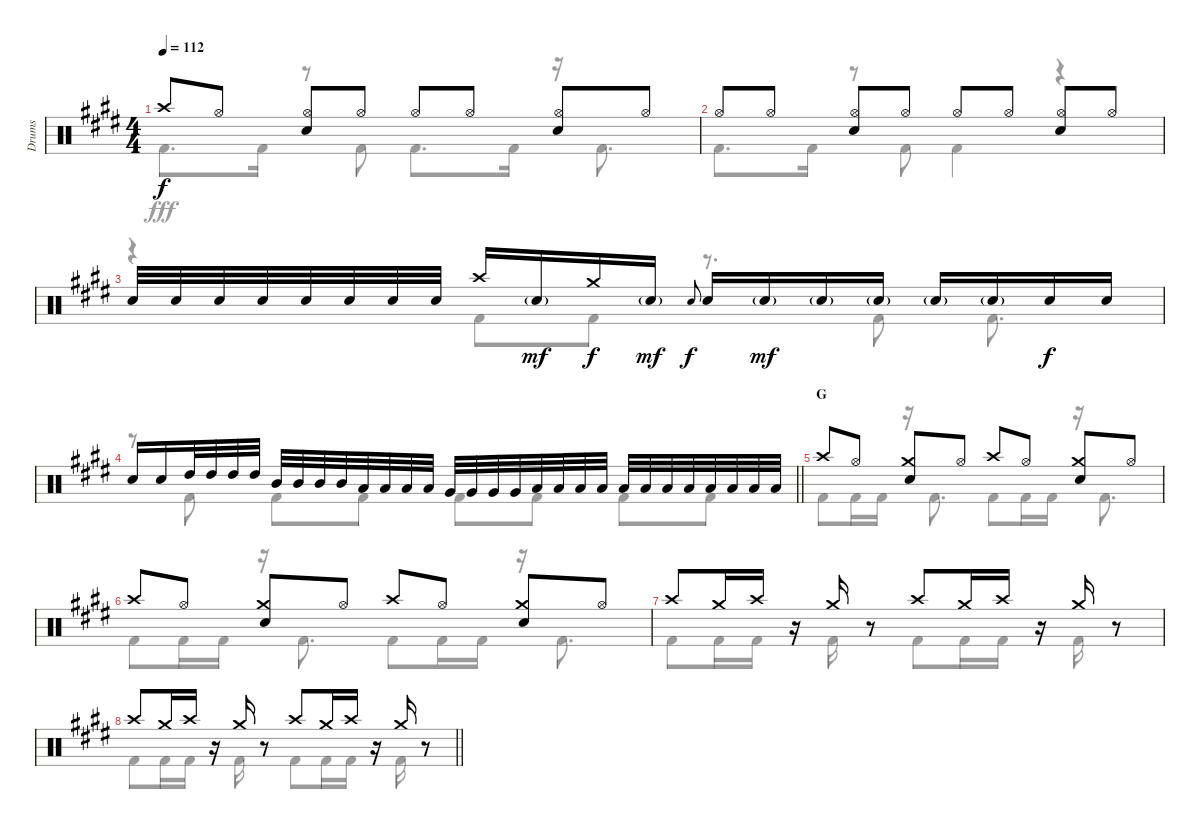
\track ("Drums" "Drums") {instrument percussion}
\staff {score}
\articulation defaults
\voice
\ts (4 4)
\tempo 112
\clef neutral
\ks e "Crash high (hit)".8{dy f} "Hi-Hat (open)".8
("Hi-Hat (open)" "Snare (hit) 2").8 "Hi-Hat (open)".8 "Hi-Hat (open)".8 "Hi-Hat (open)".8 ("Hi-Hat (open)" "Snare (hit) 2").8 "Hi-Hat (open)".8 |
"Hi-Hat (open)".8 "Hi-Hat (open)".8 ("Hi-Hat (open)" "Snare (hit) 2").8 "Hi-Hat (open)".8 "Hi-Hat (open)".8 "Hi-Hat (open)".8 ("Hi-Hat (open)" "Snare (hit) 2").8 "Hi-Hat (open)".8 |
"Snare (hit) 2".32 "Snare (hit) 2".32 "Snare (hit) 2".32 "Snare (hit) 2".32 "Snare (hit) 2".32 "Snare (hit) 2".32 "Snare (hit) 2".32 "Snare (hit) 2".32 "Crash high (hit)".16 "Snare (hit) 2"{g}.16{dy mf} "Crash medium (hit)".16{dy f} "Snare (hit) 2"{g}.16{dy mf} "Snare (hit) 2".8{gr onbeat dy f} "Snare (hit) 2".16 "Snare (hit) 2"{g}.16{dy mf} "Snare (hit) 2"{g}.16 "Snare (hit) 2"{g}.16 "Snare (hit) 2"{g}.16 "Snare (hit) 2"{g}.16 "Snare (hit) 2".16{dy f} "Snare (hit) 2".16 |
\barLineRight lightlight "Snare (hit) 2".16 "Snare (hit) 2".16 "High Tom (hit)".32 "High Tom (hit)".32 "High Tom (hit)".32 "High Tom (hit)".32 "Mid Tom (hit)".32 "Mid Tom (hit)".32 "Mid Tom (hit)".32 "Mid Tom (hit)".32 "Low Tom (hit)".32 "Low Tom (hit)".32 "Low Tom (hit)".32 "Low Tom (hit)".32 "Very Low Tom (hit)".32 "Very Low Tom (hit)".32 "Very Low Tom (hit)".32 "Very Low Tom (hit)".32 "Low Floor Tom (hit)".32 "Low Floor Tom (hit)".32 "Low Floor Tom (hit)".32 "Low Floor Tom (hit)".32 "Low Floor Tom (hit)".32 "Low Floor Tom (hit)".32 "Low Floor Tom (hit)".32 "Low Floor Tom (hit)".32 "Low Floor Tom (hit)".32 "Low Floor Tom (hit)".32 "Low Floor Tom (hit)".32 "Low Floor Tom (hit)".32
|
\section ("" "G")
"Crash high (hit)".8 "Hi-Hat (open)".8 ("Crash medium (hit)" "Snare (hit) 2").8 "Hi-Hat (open)".8 "Crash high (hit)".8 "Hi-Hat (open)".8 ("Crash medium (hit)" "Snare (hit) 2").8 "Hi-Hat (open)".8 |
"Crash high (hit)".8 "Hi-Hat (open)".8 ("Crash medium (hit)" "Snare (hit) 2").8 "Hi-Hat (open)".8 "Crash high (hit)".8 "Hi-Hat (open)".8 ("Crash medium (hit)" "Snare (hit) 2").8 "Hi-Hat (open)".8 |
"Crash high (hit)".8 "Crash medium (hit)".16 "Crash high (hit)".16 r.16 "Crash medium (hit)".16 r.8 "Crash high (hit)".8 "Crash medium (hit)".16 "Crash high (hit)".16 r.16 "Crash medium (hit)".16 r.8 |
\barLineRight lightlight "Crash high (hit)".8 "Crash medium (hit)".16 "Crash high (hit)".16
r.16 "Crash medium (hit)".16 r.8 "Crash high (hit)".8 "Crash medium (hit)".16 "Crash high (hit)".16 r.16 "Crash medium (hit)".16 r.8
\voice
\clef neutral
\ottava regular
\simile none
\ks e "Kick (hit) 2".8{d dy fff} "Kick (hit) 2".16
r.8 "Kick (hit) 2".8 "Kick (hit) 2".8{d} "Kick (hit) 2".16 r.16 "Kick (hit) 2".8{d} |
"Kick (hit) 2".8{d} "Kick (hit) 2".16 r.8 "Kick (hit) 2".8 "Kick (hit) 2".4 r.4 |
r.4 "Kick (hit) 2".8 "Kick (hit) 2".8 r.8{d} "Kick (hit) 2".8 "Kick (hit) 2".8{d} |
\barLineRight lightlight
r.8 "Kick (hit) 2".8 "Kick (hit) 2".8 "Kick (hit) 2".8 "Kick (hit) 2".8 "Kick (hit) 2".8 "Kick (hit) 2".8 "Kick (hit) 2".8 |
"Kick (hit) 2".8 "Kick (hit) 2".16 "Kick (hit) 2".16 r.16 "Kick (hit) 2".8{d} "Kick (hit) 2".8 "Kick (hit) 2".16 "Kick (hit) 2".16 r.16 "Kick (hit) 2".8{d} |
"Kick (hit) 2".8 "Kick (hit) 2".16 "Kick (hit) 2".16 r.16 "Kick (hit) 2".8{d} "Kick (hit) 2".8 "Kick (hit) 2".16 "Kick (hit) 2".16 r.16 "Kick (hit) 2".8{d} |
"Kick (hit) 2".8 "Kick (hit) 2".16 "Kick (hit) 2".16 r.16 "Kick (hit) 2".16 r.8 "Kick (hit) 2".8 "Kick (hit) 2".16 "Kick (hit) 2".16 r.16 "Kick (hit) 2".16 r.8 |
\barLineRight lightlight "Kick (hit) 2".8 "Kick (hit) 2".16 "Kick (hit) 2".16
r.16 "Kick (hit) 2".16 r.8 "Kick (hit) 2".8 "Kick (hit) 2".16 "Kick (hit) 2".16 r.16 "Kick (hit) 2".16 r.8
